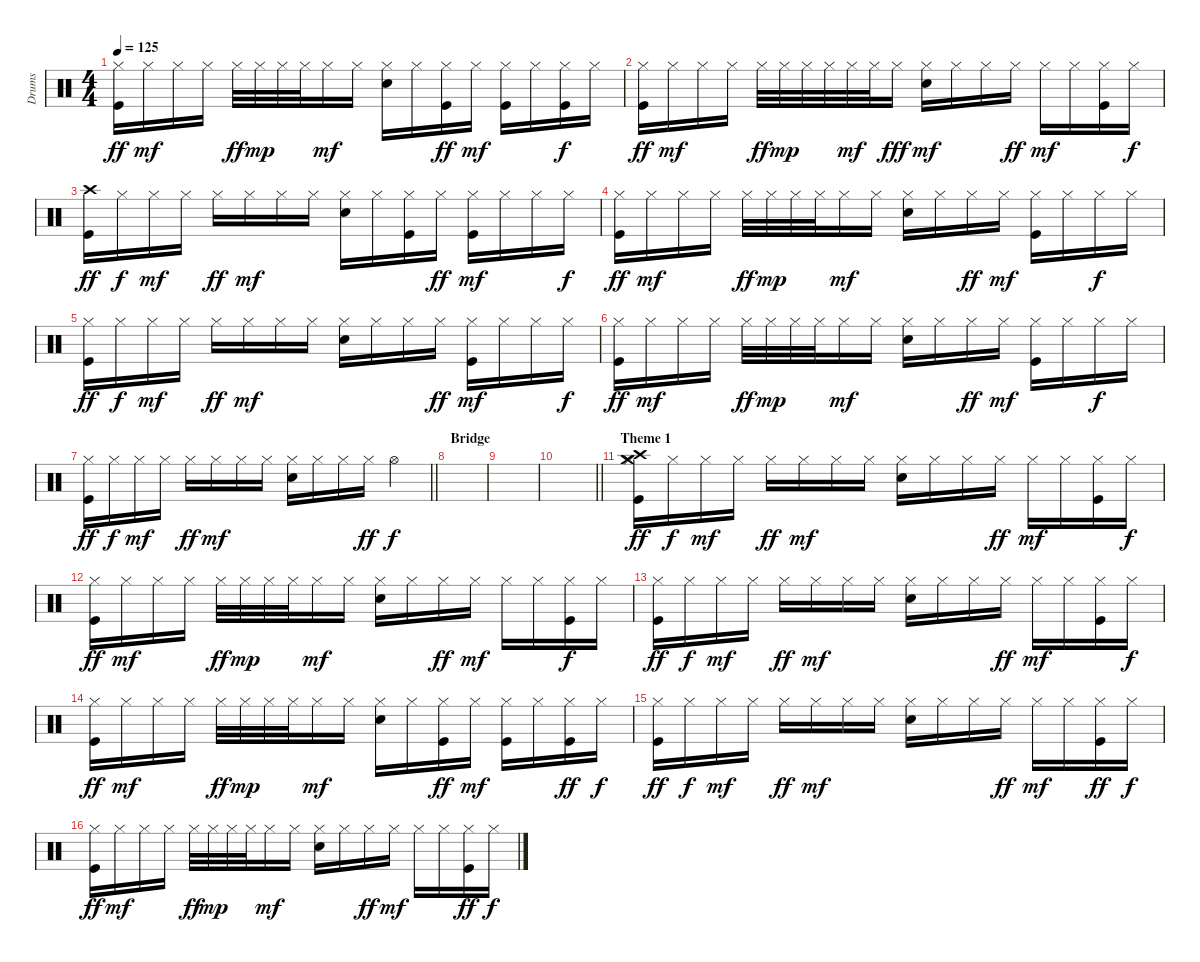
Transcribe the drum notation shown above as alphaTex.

\track ("Drums" "Drums") {instrument percussion}
\staff {score}
\articulation defaults
\ts (4 4)
\tempo 125
\clef neutral
\ks c
("Kick (hit)" "Hi-Hat (closed)").16{dy ff} "Hi-Hat (closed)".16{dy mf} "Hi-Hat (closed)".16 "Hi-Hat (closed)".16 "Hi-Hat (closed)".32{dy ff} "Hi-Hat (closed)".32{dy mp} "Hi-Hat (closed)".32 "Hi-Hat (closed)".32 "Hi-Hat (closed)".16{dy mf} "Hi-Hat (closed)".16 ("Hi-Hat (closed)" "Electric Snare (hit)").16 "Hi-Hat (closed)".16 ("Hi-Hat (closed)" "Kick (hit)").16{dy ff} "Hi-Hat (closed)".16{dy mf} ("Hi-Hat (closed)" "Kick (hit)").16 "Hi-Hat (closed)".16 ("Hi-Hat (closed)" "Kick (hit)").16{dy f} "Hi-Hat (closed)".16 |
("Kick (hit)" "Hi-Hat (closed)").16{dy ff} "Hi-Hat (closed)".16{dy mf} "Hi-Hat (closed)".16 "Hi-Hat (closed)".16 "Hi-Hat (closed)".32{dy ff} "Hi-Hat (closed)".32{dy mp} "Hi-Hat (closed)".32 "Hi-Hat (closed)".32 "Hi-Hat (closed)".32{dy mf} "Hi-Hat (closed)".32 "Hi-Hat (closed)".16{dy fff} ("Hi-Hat (closed)" "Electric Snare (hit)").16{dy mf} "Hi-Hat (closed)".16 "Hi-Hat (closed)".16 "Hi-Hat (closed)".16{dy ff} "Hi-Hat (closed)".16{dy mf} "Hi-Hat (closed)".16 ("Hi-Hat (closed)" "Kick (hit)").16 "Hi-Hat (closed)".16{dy f} |
("Kick (hit)" "Crash high (hit)").16{dy ff} "Hi-Hat (closed)".16{dy f} "Hi-Hat (closed)".16{dy mf} "Hi-Hat (closed)".16 "Hi-Hat (closed)".16{dy ff} "Hi-Hat (closed)".16{dy mf} "Hi-Hat (closed)".16 "Hi-Hat (closed)".16 ("Hi-Hat (closed)" "Electric Snare (hit)").16 "Hi-Hat (closed)".16 ("Hi-Hat (closed)" "Kick (hit)").16 "Hi-Hat (closed)".16{dy ff} ("Hi-Hat (closed)" "Kick (hit)").16{dy mf} "Hi-Hat (closed)".16 "Hi-Hat (closed)".16 "Hi-Hat (closed)".16{dy f} |
("Kick (hit)" "Hi-Hat (closed)").16{dy ff} "Hi-Hat (closed)".16{dy mf} "Hi-Hat (closed)".16 "Hi-Hat (closed)".16 "Hi-Hat (closed)".32{dy ff} "Hi-Hat (closed)".32{dy mp} "Hi-Hat (closed)".32 "Hi-Hat (closed)".32 "Hi-Hat (closed)".16{dy mf} "Hi-Hat (closed)".16 ("Hi-Hat (closed)" "Electric Snare (hit)").16 "Hi-Hat (closed)".16 "Hi-Hat (closed)".16{dy ff} "Hi-Hat (closed)".16{dy mf} ("Hi-Hat (closed)" "Kick (hit)").16 "Hi-Hat (closed)".16 "Hi-Hat (closed)".16{dy f} "Hi-Hat (closed)".16 |
("Hi-Hat (closed)" "Kick (hit)").16{dy ff} "Hi-Hat (closed)".16{dy f} "Hi-Hat (closed)".16{dy mf} "Hi-Hat (closed)".16 "Hi-Hat (closed)".16{dy ff} "Hi-Hat (closed)".16{dy mf} "Hi-Hat (closed)".16 "Hi-Hat (closed)".16 ("Hi-Hat (closed)" "Electric Snare (hit)").16 "Hi-Hat (closed)".16 "Hi-Hat (closed)".16 "Hi-Hat (closed)".16{dy ff} ("Hi-Hat (closed)" "Kick (hit)").16{dy mf} "Hi-Hat (closed)".16 "Hi-Hat (closed)".16 "Hi-Hat (closed)".16{dy f} |
("Kick (hit)" "Hi-Hat (closed)").16{dy ff} "Hi-Hat (closed)".16{dy mf} "Hi-Hat (closed)".16 "Hi-Hat (closed)".16 "Hi-Hat (closed)".32{dy ff} "Hi-Hat (closed)".32{dy mp} "Hi-Hat (closed)".32 "Hi-Hat (closed)".32 "Hi-Hat (closed)".16{dy mf} "Hi-Hat (closed)".16 ("Hi-Hat (closed)" "Electric Snare (hit)").16 "Hi-Hat (closed)".16 "Hi-Hat (closed)".16{dy ff} "Hi-Hat (closed)".16{dy mf} ("Hi-Hat (closed)" "Kick (hit)").16 "Hi-Hat (closed)".16 "Hi-Hat (closed)".16{dy f} "Hi-Hat (closed)".16 |
\barLineRight lightlight
("Hi-Hat (closed)" "Kick (hit)").16{dy ff} "Hi-Hat (closed)".16{dy f} "Hi-Hat (closed)".16{dy mf} "Hi-Hat (closed)".16 "Hi-Hat (closed)".16{dy ff} "Hi-Hat (closed)".16{dy mf} "Hi-Hat (closed)".16 "Hi-Hat (closed)".16 ("Hi-Hat (closed)" "Electric Snare (hit)").16 "Hi-Hat (closed)".16 "Hi-Hat (closed)".16 "Hi-Hat (closed)".16{dy ff} "Hi-Hat (open)".4{dy f} |
\section ("" "Bridge")
|
|
\barLineRight lightlight
|
\section ("" "Theme 1")
("Hi-Hat (closed)" "Kick (hit)" "Crash medium (hit)" "Crash high (hit)").16{dy ff} "Hi-Hat (closed)".16{dy f} "Hi-Hat (closed)".16{dy mf} "Hi-Hat (closed)".16 "Hi-Hat (closed)".16{dy ff} "Hi-Hat (closed)".16{dy mf} "Hi-Hat (closed)".16 "Hi-Hat (closed)".16 ("Hi-Hat (closed)" "Electric Snare (hit)").16 "Hi-Hat (closed)".16 "Hi-Hat (closed)".16 "Hi-Hat (closed)".16{dy ff} "Hi-Hat (closed)".16{dy mf} "Hi-Hat (closed)".16 ("Hi-Hat (closed)" "Kick (hit)").16 "Hi-Hat (closed)".16{dy f} |
("Hi-Hat (closed)" "Kick (hit)").16{dy ff} "Hi-Hat (closed)".16{dy mf} "Hi-Hat (closed)".16 "Hi-Hat (closed)".16 "Hi-Hat (closed)".32{dy ff} "Hi-Hat (closed)".32{dy mp} "Hi-Hat (closed)".32 "Hi-Hat (closed)".32 "Hi-Hat (closed)".16{dy mf} "Hi-Hat (closed)".16 ("Hi-Hat (closed)" "Electric Snare (hit)").16 "Hi-Hat (closed)".16 "Hi-Hat (closed)".16{dy ff} "Hi-Hat (closed)".16{dy mf} "Hi-Hat (closed)".16 "Hi-Hat (closed)".16 ("Hi-Hat (closed)" "Kick (hit)").16{dy f} "Hi-Hat (closed)".16 |
("Hi-Hat (closed)" "Kick (hit)").16{dy ff} "Hi-Hat (closed)".16{dy f} "Hi-Hat (closed)".16{dy mf} "Hi-Hat (closed)".16 "Hi-Hat (closed)".16{dy ff} "Hi-Hat (closed)".16{dy mf} "Hi-Hat (closed)".16 "Hi-Hat (closed)".16 ("Hi-Hat (closed)" "Electric Snare (hit)").16 "Hi-Hat (closed)".16 "Hi-Hat (closed)".16 "Hi-Hat (closed)".16{dy ff} "Hi-Hat (closed)".16{dy mf} "Hi-Hat (closed)".16 ("Hi-Hat (closed)" "Kick (hit)").16 "Hi-Hat (closed)".16{dy f} |
("Hi-Hat (closed)" "Kick (hit)").16{dy ff} "Hi-Hat (closed)".16{dy mf} "Hi-Hat (closed)".16 "Hi-Hat (closed)".16 "Hi-Hat (closed)".32{dy ff} "Hi-Hat (closed)".32{dy mp} "Hi-Hat (closed)".32 "Hi-Hat (closed)".32 "Hi-Hat (closed)".16{dy mf} "Hi-Hat (closed)".16 ("Hi-Hat (closed)" "Electric Snare (hit)").16 "Hi-Hat (closed)".16 ("Hi-Hat (closed)" "Kick (hit)").16{dy ff} "Hi-Hat (closed)".16{dy mf} ("Hi-Hat (closed)" "Kick (hit)").16 "Hi-Hat (closed)".16 ("Hi-Hat (closed)" "Kick (hit)").16{dy ff} "Hi-Hat (closed)".16{dy f} |
("Hi-Hat (closed)" "Kick (hit)").16{dy ff} "Hi-Hat (closed)".16{dy f} "Hi-Hat (closed)".16{dy mf} "Hi-Hat (closed)".16 "Hi-Hat (closed)".16{dy ff} "Hi-Hat (closed)".16{dy mf} "Hi-Hat (closed)".16 "Hi-Hat (closed)".16 ("Hi-Hat (closed)" "Electric Snare (hit)").16 "Hi-Hat (closed)".16 "Hi-Hat (closed)".16 "Hi-Hat (closed)".16{dy ff} "Hi-Hat (closed)".16{dy mf} "Hi-Hat (closed)".16 ("Hi-Hat (closed)" "Kick (hit)").16{dy ff} "Hi-Hat (closed)".16{dy f} |
("Kick (hit)" "Hi-Hat (closed)").16{dy ff} "Hi-Hat (closed)".16{dy mf} "Hi-Hat (closed)".16 "Hi-Hat (closed)".16 "Hi-Hat (closed)".32{dy ff} "Hi-Hat (closed)".32{dy mp} "Hi-Hat (closed)".32 "Hi-Hat (closed)".32 "Hi-Hat (closed)".16{dy mf} "Hi-Hat (closed)".16 ("Hi-Hat (closed)" "Electric Snare (hit)").16 "Hi-Hat (closed)".16 "Hi-Hat (closed)".16{dy ff} "Hi-Hat (closed)".16{dy mf} "Hi-Hat (closed)".16 "Hi-Hat (closed)".16 ("Hi-Hat (closed)" "Kick (hit)").16{dy ff} "Hi-Hat (closed)".16{dy f}
